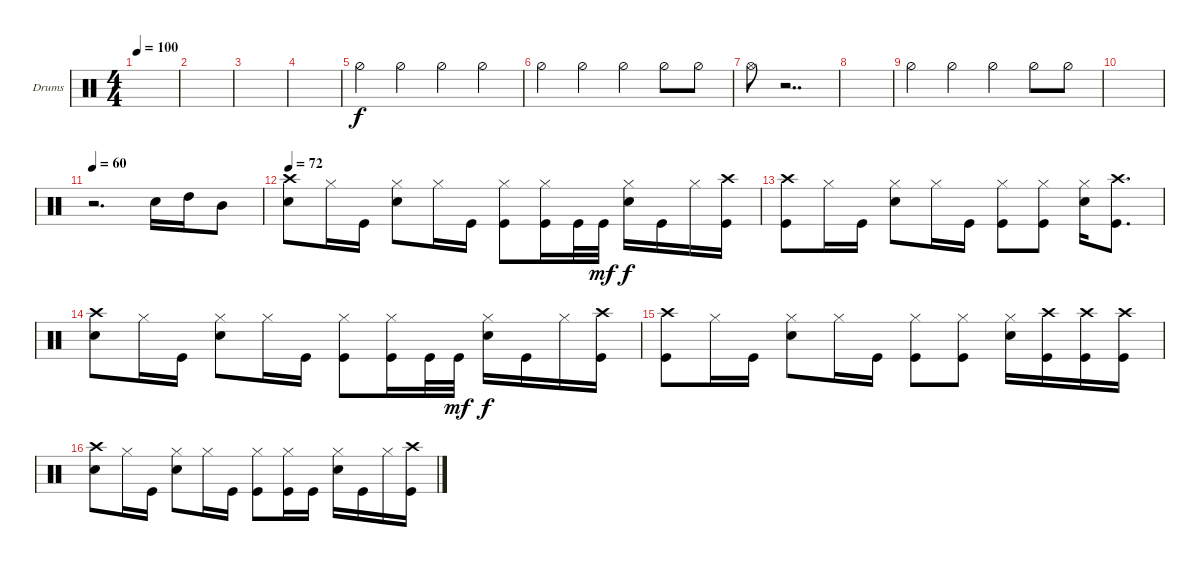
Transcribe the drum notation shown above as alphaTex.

\defaultSystemsLayout 4
\bracketExtendMode groupsimilarinstruments
\firstSystemTrackNameOrientation horizontal
\otherSystemsTrackNameOrientation horizontal
\track ("Drumkit" "Drums") {instrument percussion}
\staff {score}
\articulation defaults
\ts (4 4)
\tempo 100
\clef neutral
\ks c
|
|
|
|
"Hi-Hat (half)".4 "Hi-Hat (half)".4 "Hi-Hat (half)".4 "Hi-Hat (half)".4 |
"Hi-Hat (half)".4 "Hi-Hat (half)".4 "Hi-Hat (half)".4 "Hi-Hat (half)".8 "Hi-Hat (half)".8 |
"Hi-Hat (open)".8 r.2{dd} |
|
"Hi-Hat (half)".4 "Hi-Hat (half)".4 "Hi-Hat (half)".4 "Hi-Hat (half)".8 "Hi-Hat (half)".8 |
|
\tempo 60
r.2{d} "Snare (hit) 2".16{dy f} "High Tom (hit)".16 "Mid Tom (hit)".8 |
\tempo 72
("Crash high (hit)" "Snare (hit) 2").8 "Hi-Hat (closed)".16 "Kick (hit)".16 ("Hi-Hat (closed)" "Snare (hit) 2").8 "Hi-Hat (closed)".16 "Kick (hit)".16 ("Hi-Hat (closed)" "Kick (hit)").8 ("Hi-Hat (closed)" "Kick (hit)").16 "Kick (hit)".32 "Kick (hit)".32{dy mf} ("Hi-Hat (closed)" "Snare (hit) 2").16{dy f} "Kick (hit)".16 "Hi-Hat (closed)".16 ("Crash high (hit)" "Kick (hit)").16 |
("Crash high (hit)" "Kick (hit)").8 "Hi-Hat (closed)".16 "Kick (hit)".16 ("Hi-Hat (closed)" "Snare (hit) 2").8 "Hi-Hat (closed)".16 "Kick (hit)".16 ("Hi-Hat (closed)" "Kick (hit)").8 ("Hi-Hat (closed)" "Kick (hit)").8 ("Hi-Hat (closed)" "Snare (hit) 2").16 ("Crash high (hit)" "Kick (hit)").8{d} |
("Crash high (hit)" "Snare (hit) 2").8 "Hi-Hat (closed)".16 "Kick (hit)".16 ("Hi-Hat (closed)" "Snare (hit) 2").8 "Hi-Hat (closed)".16 "Kick (hit)".16 ("Hi-Hat (closed)" "Kick (hit)").8 ("Hi-Hat (closed)" "Kick (hit)").16 "Kick (hit)".32 "Kick (hit)".32{dy mf} ("Hi-Hat (closed)" "Snare (hit) 2").16{dy f} "Kick (hit)".16 "Hi-Hat (closed)".16 ("Crash high (hit)" "Kick (hit)").16 |
("Crash high (hit)" "Kick (hit)").8 "Hi-Hat (closed)".16 "Kick (hit)".16 ("Hi-Hat (closed)" "Snare (hit) 2").8 "Hi-Hat (closed)".16 "Kick (hit)".16 ("Hi-Hat (closed)" "Kick (hit)").8 ("Hi-Hat (closed)" "Kick (hit)").8 ("Hi-Hat (closed)" "Snare (hit) 2").16 ("Crash high (hit)" "Kick (hit)").16 ("Crash high (hit)" "Kick (hit)").16 ("Crash high (hit)" "Kick (hit)").16 |
("Crash high (hit)" "Snare (hit) 2").8 "Hi-Hat (closed)".16 "Kick (hit)".16 ("Hi-Hat (closed)" "Snare (hit) 2").8 "Hi-Hat (closed)".16 "Kick (hit)".16 ("Hi-Hat (closed)" "Kick (hit)").8 ("Hi-Hat (closed)" "Kick (hit)").16 "Kick (hit)".16 ("Hi-Hat (closed)" "Snare (hit) 2").16 "Kick (hit)".16 "Hi-Hat (closed)".16 ("Crash high (hit)" "Kick (hit)").16
